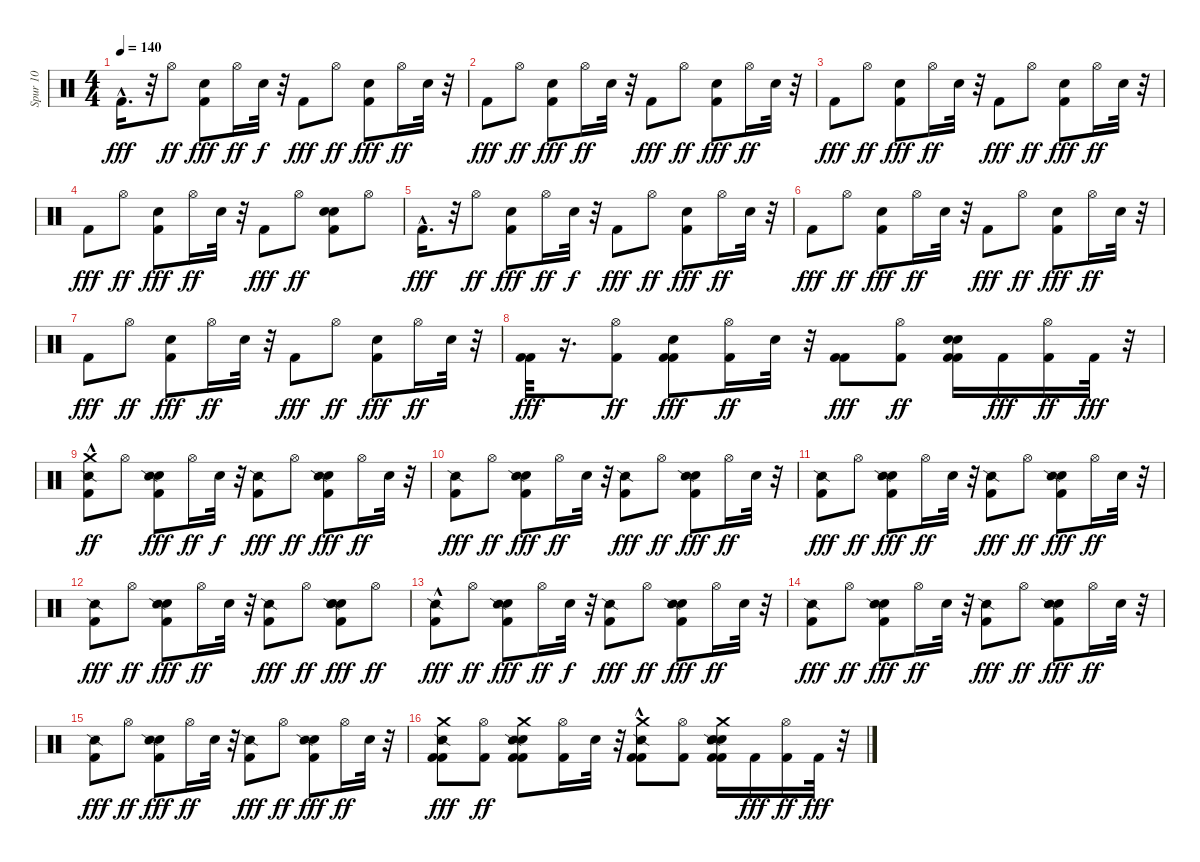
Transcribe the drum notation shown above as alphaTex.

\track ("Spur 10" "Spur 10") {instrument percussion}
\staff {score}
\articulation defaults
\ts (4 4)
\tempo 140
\clef neutral
\ks c "Kick (hit) 2"{hac}.16{d dy fff}
r.32 "Hi-Hat (open)".8{dy ff} ("Kick (hit) 2" "Hand Clap (hit)").8{dy fff} "Hi-Hat (open)".16{dy ff} "Snare (hit) 2".32{dy f} r.32 "Kick (hit) 2".8{dy fff} "Hi-Hat (open)".8{dy ff} ("Kick (hit) 2" "Hand Clap (hit)").8{dy fff} "Hi-Hat (open)".16{dy ff} "Snare (hit) 2".32 r.32 |
"Kick (hit) 2".8{dy fff} "Hi-Hat (open)".8{dy ff} ("Kick (hit) 2" "Hand Clap (hit)").8{dy fff} "Hi-Hat (open)".16{dy ff} "Snare (hit) 2".32 r.32 "Kick (hit) 2".8{dy fff} "Hi-Hat (open)".8{dy ff} ("Kick (hit) 2" "Hand Clap (hit)").8{dy fff} "Hi-Hat (open)".16{dy ff} "Snare (hit) 2".32 r.32 |
"Kick (hit) 2".8{dy fff} "Hi-Hat (open)".8{dy ff} ("Kick (hit) 2" "Hand Clap (hit)").8{dy fff} "Hi-Hat (open)".16{dy ff} "Snare (hit) 2".32 r.32 "Kick (hit) 2".8{dy fff} "Hi-Hat (open)".8{dy ff} ("Kick (hit) 2" "Hand Clap (hit)").8{dy fff} "Hi-Hat (open)".16{dy ff} "Snare (hit) 2".32 r.32 |
"Kick (hit) 2".8{dy fff} "Hi-Hat (open)".8{dy ff} ("Kick (hit) 2" "Hand Clap (hit)").8{dy fff} "Hi-Hat (open)".16{dy ff} "Snare (hit) 2".32 r.32 "Kick (hit) 2".8{dy fff} "Hi-Hat (open)".8{dy ff} ("Kick (hit) 2" "Hand Clap (hit)" "Snare (hit) 2").8 "Hi-Hat (open)".8 |
"Kick (hit) 2"{hac}.16{d dy fff} r.32 "Hi-Hat (open)".8{dy ff} ("Kick (hit) 2" "Hand Clap (hit)").8{dy fff} "Hi-Hat (open)".16{dy ff} "Snare (hit) 2".32{dy f} r.32 "Kick (hit) 2".8{dy fff} "Hi-Hat (open)".8{dy ff} ("Kick (hit) 2" "Hand Clap (hit)").8{dy fff} "Hi-Hat (open)".16{dy ff} "Snare (hit) 2".32 r.32 |
"Kick (hit) 2".8{dy fff} "Hi-Hat (open)".8{dy ff} ("Kick (hit) 2" "Hand Clap (hit)").8{dy fff} "Hi-Hat (open)".16{dy ff} "Snare (hit) 2".32 r.32 "Kick (hit) 2".8{dy fff} "Hi-Hat (open)".8{dy ff} ("Kick (hit) 2" "Hand Clap (hit)").8{dy fff} "Hi-Hat (open)".16{dy ff} "Snare (hit) 2".32 r.32 |
"Kick (hit) 2".8{dy fff} "Hi-Hat (open)".8{dy ff} ("Kick (hit) 2" "Hand Clap (hit)").8{dy fff} "Hi-Hat (open)".16{dy ff} "Snare (hit) 2".32 r.32 "Kick (hit) 2".8{dy fff} "Hi-Hat (open)".8{dy ff} ("Kick (hit) 2" "Hand Clap (hit)").8{dy fff} "Hi-Hat (open)".16{dy ff} "Snare (hit) 2".32 r.32 |
("Kick (hit) 2" "Kick (hit) 2").32{dy fff} r.16{d} ("Kick (hit) 2" "Hi-Hat (open)").8{dy ff} ("Kick (hit) 2" "Kick (hit) 2" "Hand Clap (hit)").8{dy fff} ("Kick (hit) 2" "Hi-Hat (open)").16{dy ff} "Snare (hit) 2".32 r.32 ("Kick (hit) 2" "Kick (hit) 2").8{dy fff} ("Kick (hit) 2" "Hi-Hat (open)").8{dy ff} ("Kick (hit) 2" "Kick (hit) 2" "Hand Clap (hit)" "Snare (hit) 2").16 "Kick (hit) 2".16{dy fff} ("Kick (hit) 2" "Hi-Hat (open)").16{dy ff} "Kick (hit) 2".32{dy fff} r.32 |
("Kick (hit) 2"{hac} "Snare (side stick) 2" "Crash medium (hit)").8{dy ff} "Hi-Hat (open)".8 ("Kick (hit) 2" "Hand Clap (hit)" "Snare (side stick) 2").8{dy fff} "Hi-Hat (open)".16{dy ff} "Snare (hit) 2".32{dy f} r.32 ("Kick (hit) 2" "Snare (side stick) 2").8{dy fff} "Hi-Hat (open)".8{dy ff} ("Kick (hit) 2" "Hand Clap (hit)" "Snare (side stick) 2").8{dy fff} "Hi-Hat (open)".16{dy ff} "Snare (hit) 2".32 r.32 |
("Kick (hit) 2" "Snare (side stick) 2").8{dy fff} "Hi-Hat (open)".8{dy ff} ("Kick (hit) 2" "Hand Clap (hit)" "Snare (side stick) 2").8{dy fff} "Hi-Hat (open)".16{dy ff} "Snare (hit) 2".32 r.32 ("Kick (hit) 2" "Snare (side stick) 2").8{dy fff} "Hi-Hat (open)".8{dy ff} ("Kick (hit) 2" "Hand Clap (hit)" "Snare (side stick) 2").8{dy fff} "Hi-Hat (open)".16{dy ff} "Snare (hit) 2".32 r.32 |
("Kick (hit) 2" "Snare (side stick) 2").8{dy fff} "Hi-Hat (open)".8{dy ff} ("Kick (hit) 2" "Hand Clap (hit)" "Snare (side stick) 2").8{dy fff} "Hi-Hat (open)".16{dy ff} "Snare (hit) 2".32 r.32 ("Kick (hit) 2" "Snare (side stick) 2").8{dy fff} "Hi-Hat (open)".8{dy ff} ("Kick (hit) 2" "Hand Clap (hit)" "Snare (side stick) 2").8{dy fff} "Hi-Hat (open)".16{dy ff} "Snare (hit) 2".32 r.32 |
("Kick (hit) 2" "Snare (side stick) 2").8{dy fff} "Hi-Hat (open)".8{dy ff} ("Kick (hit) 2" "Hand Clap (hit)" "Snare (side stick) 2").8{dy fff} "Hi-Hat (open)".16{dy ff} "Snare (hit) 2".32 r.32 ("Kick (hit) 2" "Snare (side stick) 2").8{dy fff} "Hi-Hat (open)".8{dy ff} ("Kick (hit) 2" "Hand Clap (hit)" "Snare (hit) 2" "Snare (side stick) 2").8{dy fff} "Hi-Hat (open)".8{dy ff} |
("Kick (hit) 2"{hac} "Snare (side stick) 2").8{dy fff} "Hi-Hat (open)".8{dy ff} ("Kick (hit) 2" "Hand Clap (hit)" "Snare (side stick) 2").8{dy fff} "Hi-Hat (open)".16{dy ff} "Snare (hit) 2".32{dy f} r.32 ("Kick (hit) 2" "Snare (side stick) 2").8{dy fff} "Hi-Hat (open)".8{dy ff} ("Kick (hit) 2" "Hand Clap (hit)" "Snare (side stick) 2").8{dy fff} "Hi-Hat (open)".16{dy ff} "Snare (hit) 2".32 r.32 |
("Kick (hit) 2" "Snare (side stick) 2").8{dy fff} "Hi-Hat (open)".8{dy ff} ("Kick (hit) 2" "Hand Clap (hit)" "Snare (side stick) 2").8{dy fff} "Hi-Hat (open)".16{dy ff} "Snare (hit) 2".32 r.32 ("Kick (hit) 2" "Snare (side stick) 2").8{dy fff} "Hi-Hat (open)".8{dy ff} ("Kick (hit) 2" "Hand Clap (hit)" "Snare (side stick) 2").8{dy fff} "Hi-Hat (open)".16{dy ff} "Snare (hit) 2".32 r.32 |
("Kick (hit) 2" "Snare (side stick) 2").8{dy fff} "Hi-Hat (open)".8{dy ff} ("Kick (hit) 2" "Hand Clap (hit)" "Snare (side stick) 2").8{dy fff} "Hi-Hat (open)".16{dy ff} "Snare (hit) 2".32 r.32 ("Kick (hit) 2" "Snare (side stick) 2").8{dy fff} "Hi-Hat (open)".8{dy ff} ("Kick (hit) 2" "Hand Clap (hit)" "Snare (side stick) 2").8{dy fff} "Hi-Hat (open)".16{dy ff} "Snare (hit) 2".32 r.32 |
("Kick (hit) 2" "Kick (hit) 2" "Snare (side stick) 2" "Crash medium (hit)").8{dy fff} ("Kick (hit) 2" "Hi-Hat (open)").8{dy ff} ("Kick (hit) 2" "Kick (hit) 2" "Hand Clap (hit)" "Snare (side stick) 2" "Crash medium (hit)").8 ("Kick (hit) 2" "Hi-Hat (open)").16 "Snare (hit) 2".32 r.32 ("Kick (hit) 2" "Kick (hit) 2" "Snare (side stick) 2"{hac} "Crash medium (hit)").8 ("Kick (hit) 2" "Hi-Hat (open)").8 ("Kick (hit) 2" "Kick (hit) 2" "Hand Clap (hit)" "Snare (hit) 2" "Snare (side stick) 2" "Crash medium (hit)").16 "Kick (hit) 2".16{dy fff} ("Kick (hit) 2" "Hi-Hat (open)").16{dy ff} "Kick (hit) 2".32{dy fff} r.32
